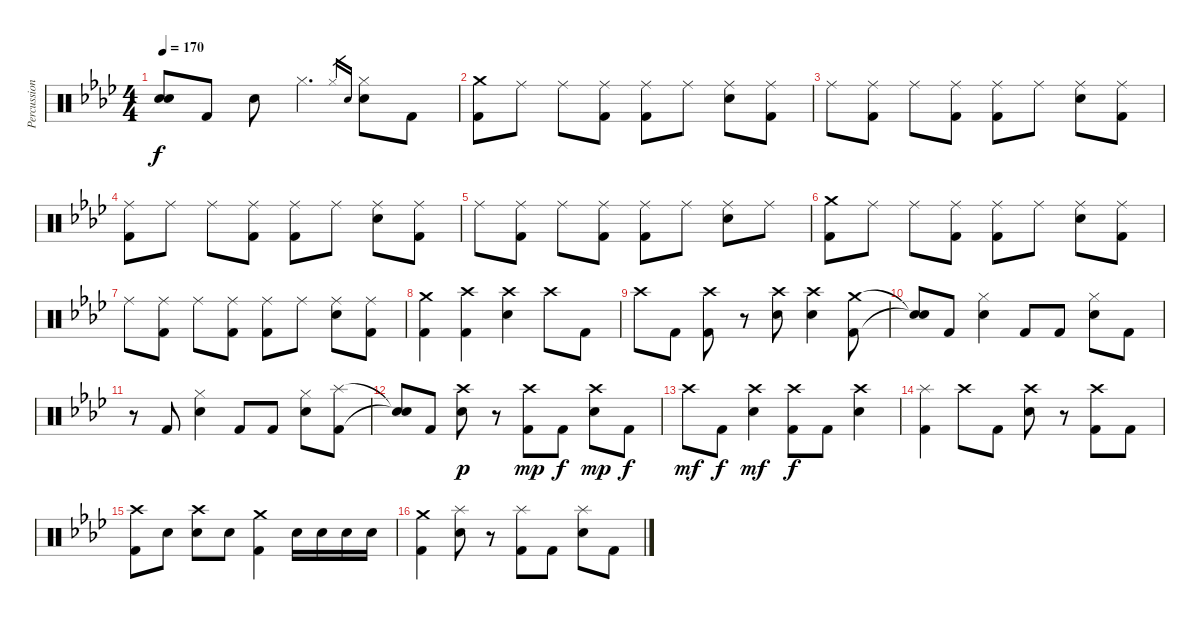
\track ("Percussion" "Percussion") {instrument percussion}
\staff {score}
\articulation defaults
\ts (4 4)
\tempo 170
\clef neutral
\ks ab
("Snare (hit)"{t} "Snare (hit)"{t}).8{dy f} "Kick (hit) 2".8 "Electric Snare (hit)".8 "Hi-Hat (closed)".4{d} "Hi-Hat (closed)".16{gr} "Electric Snare (hit)".16{gr} ("Hi-Hat (closed)" "Electric Snare (hit)").8 "Kick (hit) 2".8 |
("Crash medium (hit)" "Kick (hit) 2").8 "Ride (middle)".8 "Ride (middle)".8 ("Ride (middle)" "Kick (hit) 2").8 ("Ride (middle)" "Kick (hit) 2").8 "Ride (middle)".8 ("Ride (middle)" "Electric Snare (hit)").8 ("Ride (middle)" "Kick (hit) 2").8 |
"Ride (middle)".8 ("Ride (middle)" "Kick (hit) 2").8 "Ride (middle)".8 ("Ride (middle)" "Kick (hit) 2").8 ("Ride (middle)" "Kick (hit) 2").8 "Ride (middle)".8 ("Ride (middle)" "Electric Snare (hit)").8 ("Ride (middle)" "Kick (hit) 2").8 |
("Ride (middle)" "Kick (hit) 2").8 "Ride (middle)".8 "Ride (middle)".8 ("Ride (middle)" "Kick (hit) 2").8 ("Ride (middle)" "Kick (hit) 2").8 "Ride (middle)".8 ("Ride (middle)" "Electric Snare (hit)").8 ("Ride (middle)" "Kick (hit) 2").8 |
"Ride (middle)".8 ("Ride (middle)" "Kick (hit) 2").8 "Ride (middle)".8 ("Ride (middle)" "Kick (hit) 2").8 ("Ride (middle)" "Kick (hit) 2").8 "Ride (middle)".8 ("Ride (middle)" "Electric Snare (hit)").8 "Ride (middle)".8 |
("Crash medium (hit)" "Kick (hit) 2").8 "Ride (middle)".8 "Ride (middle)".8 ("Ride (middle)" "Kick (hit) 2").8 ("Ride (middle)" "Kick (hit) 2").8 "Ride (middle)".8 ("Ride (middle)" "Electric Snare (hit)").8 ("Ride (middle)" "Kick (hit) 2").8 |
"Ride (middle)".8 ("Ride (middle)" "Kick (hit) 2").8 "Ride (middle)".8 ("Ride (middle)" "Kick (hit) 2").8 ("Ride (middle)" "Kick (hit) 2").8 "Ride (middle)".8 ("Ride (middle)" "Electric Snare (hit)").8 ("Ride (middle)" "Kick (hit) 2").8 |
("Crash medium (hit)" "Kick (hit) 2").4 ("Crash high (hit)" "Kick (hit) 2").4 ("Crash high (hit)" "Electric Snare (hit)").4 "Crash high (hit)".8 "Kick (hit) 2".8 |
"Crash high (hit)".8 "Kick (hit) 2".8 ("Crash high (hit)" "Kick (hit) 2").8 r.8 ("Crash high (hit)" "Electric Snare (hit)").8 ("Crash high (hit)" "Electric Snare (hit)").4 ("Crash medium (hit)" "Kick (hit) 2").8 |
("Snare (hit)"{t} "Snare (hit)"{t}).8 "Kick (hit) 2".8 ("Hi-Hat (closed)" "Electric Snare (hit)").4 "Kick (hit) 2".8 "Kick (hit) 2".8 ("Hi-Hat (closed)" "Electric Snare (hit)").8 "Kick (hit) 2".8 |
r.8 "Kick (hit) 2".8 ("Hi-Hat (closed)" "Electric Snare (hit)").4 "Kick (hit) 2".8 "Kick (hit) 2".8 ("Hi-Hat (closed)" "Electric Snare (hit)").8 ("Splash (hit)" "Kick (hit) 2").8 |
("Snare (hit)"{t} "Snare (hit)"{t}).8 "Kick (hit) 2".8 ("Crash high (hit)" "Electric Snare (hit)").8{dy p} r.8 ("Crash high (hit)" "Kick (hit) 2").8{dy mp} "Kick (hit) 2".8{dy f} ("Crash high (hit)" "Electric Snare (hit)").8{dy mp} "Kick (hit) 2".8{dy f} |
"Crash high (hit)".8{dy mf} "Kick (hit) 2".8{dy f} ("Crash high (hit)" "Electric Snare (hit)").4{dy mf} ("Crash high (hit)" "Kick (hit) 2").8{dy f} "Kick (hit) 2".8 ("Crash high (hit)" "Electric Snare (hit)").4 |
("Splash (hit)" "Kick (hit) 2").4 "Crash high (hit)".8 "Kick (hit) 2".8 ("Crash high (hit)" "Electric Snare (hit)").8 r.8 ("Crash high (hit)" "Kick (hit) 2").8 "Kick (hit) 2".8 |
("Crash high (hit)" "Kick (hit) 2").8 "Electric Snare (hit)".8 ("Crash high (hit)" "Electric Snare (hit)").8 "Electric Snare (hit)".8 ("Crash medium (hit)" "Kick (hit) 2").4 "Electric Snare (hit)".16 "Electric Snare (hit)".16 "Electric Snare (hit)".16 "Electric Snare (hit)".16 |
("Crash medium (hit)" "Kick (hit) 2").4 ("Splash (hit)" "Electric Snare (hit)").8 r.8 ("Splash (hit)" "Kick (hit) 2").8 "Kick (hit) 2".8 ("Splash (hit)" "Electric Snare (hit)").8 "Kick (hit) 2".8
